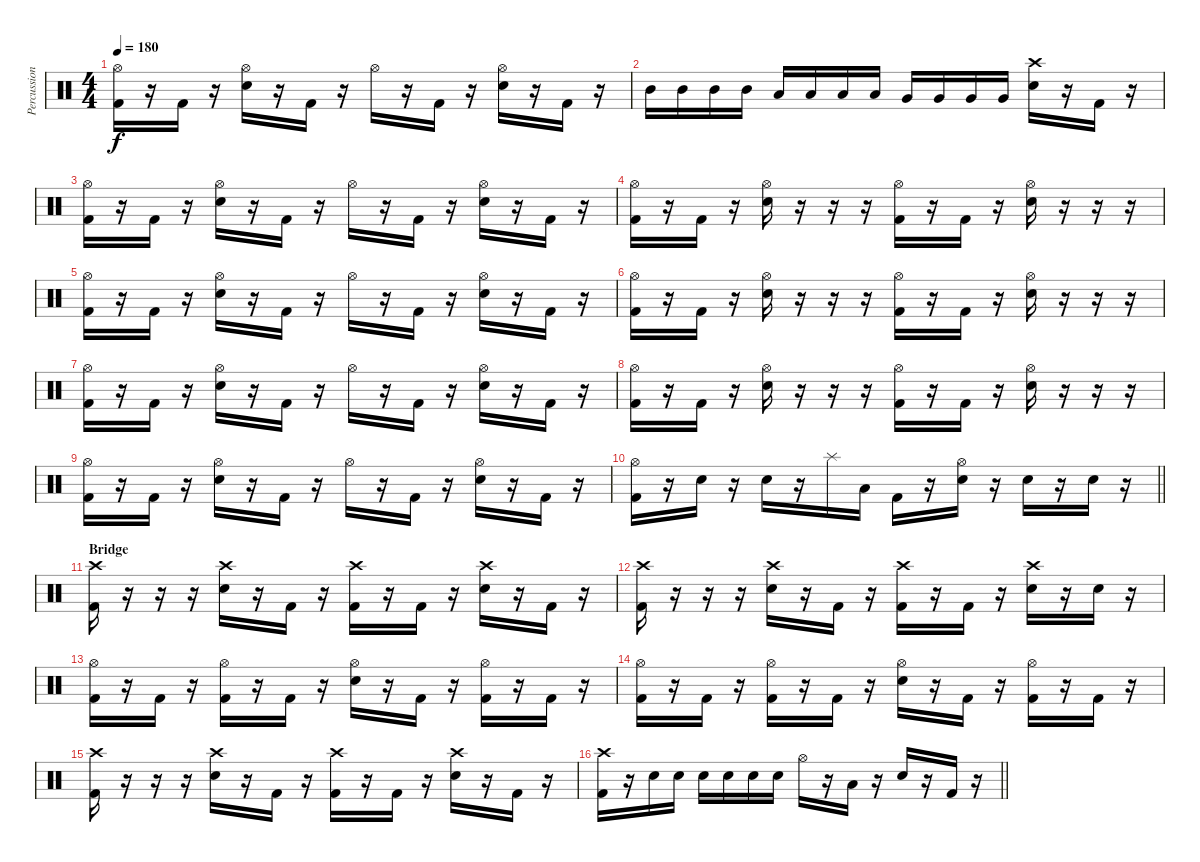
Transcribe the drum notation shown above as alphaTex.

\track ("Percussion" "Percussion") {instrument percussion}
\staff {score}
\articulation defaults
\ts (4 4)
\tempo 180
\clef neutral
\ks c
("Hi-Hat (open)" "Kick (hit) 2").16{dy f} r.16 "Kick (hit) 2".16 r.16 ("Hi-Hat (open)" "Electric Snare (hit)").16 r.16 "Kick (hit) 2".16 r.16 "Hi-Hat (open)".16 r.16 "Kick (hit) 2".16 r.16 ("Hi-Hat (open)" "Electric Snare (hit)").16 r.16 "Kick (hit) 2".16 r.16 |
"Mid Tom (hit)".16 "Mid Tom (hit)".16 "Mid Tom (hit)".16 "Mid Tom (hit)".16 "Low Tom (hit)".16 "Low Tom (hit)".16 "Low Tom (hit)".16 "Low Tom (hit)".16 "Very Low Tom (hit)".16 "Very Low Tom (hit)".16 "Very Low Tom (hit)".16 "Very Low Tom (hit)".16 ("Crash high (hit)" "Electric Snare (hit)").16 r.16 "Kick (hit) 2".16 r.16 |
("Hi-Hat (open)" "Kick (hit) 2").16 r.16 "Kick (hit) 2".16 r.16 ("Hi-Hat (open)" "Electric Snare (hit)").16 r.16 "Kick (hit) 2".16 r.16 "Hi-Hat (open)".16 r.16 "Kick (hit) 2".16 r.16 ("Hi-Hat (open)" "Electric Snare (hit)").16 r.16 "Kick (hit) 2".16 r.16 |
("Hi-Hat (open)" "Kick (hit) 2").16 r.16 "Kick (hit) 2".16 r.16 ("Hi-Hat (open)" "Electric Snare (hit)").16 r.16 r.16 r.16 ("Hi-Hat (open)" "Kick (hit) 2").16 r.16 "Kick (hit) 2".16 r.16 ("Hi-Hat (open)" "Electric Snare (hit)").16 r.16 r.16 r.16 |
("Hi-Hat (open)" "Kick (hit) 2").16 r.16 "Kick (hit) 2".16 r.16 ("Hi-Hat (open)" "Electric Snare (hit)").16 r.16 "Kick (hit) 2".16 r.16 "Hi-Hat (open)".16 r.16 "Kick (hit) 2".16 r.16 ("Hi-Hat (open)" "Electric Snare (hit)").16 r.16 "Kick (hit) 2".16 r.16 |
("Hi-Hat (open)" "Kick (hit) 2").16 r.16 "Kick (hit) 2".16 r.16 ("Hi-Hat (open)" "Electric Snare (hit)").16 r.16 r.16 r.16 ("Hi-Hat (open)" "Kick (hit) 2").16 r.16 "Kick (hit) 2".16 r.16 ("Hi-Hat (open)" "Electric Snare (hit)").16 r.16 r.16 r.16 |
("Hi-Hat (open)" "Kick (hit) 2").16 r.16 "Kick (hit) 2".16 r.16 ("Hi-Hat (open)" "Electric Snare (hit)").16 r.16 "Kick (hit) 2".16 r.16 "Hi-Hat (open)".16 r.16 "Kick (hit) 2".16 r.16 ("Hi-Hat (open)" "Electric Snare (hit)").16 r.16 "Kick (hit) 2".16 r.16 |
("Hi-Hat (open)" "Kick (hit) 2").16 r.16 "Kick (hit) 2".16 r.16 ("Hi-Hat (open)" "Electric Snare (hit)").16 r.16 r.16 r.16 ("Hi-Hat (open)" "Kick (hit) 2").16 r.16 "Kick (hit) 2".16 r.16 ("Hi-Hat (open)" "Electric Snare (hit)").16 r.16 r.16 r.16 |
("Hi-Hat (open)" "Kick (hit) 2").16 r.16 "Kick (hit) 2".16 r.16 ("Hi-Hat (open)" "Electric Snare (hit)").16 r.16 "Kick (hit) 2".16 r.16 "Hi-Hat (open)".16 r.16 "Kick (hit) 2".16 r.16 ("Hi-Hat (open)" "Electric Snare (hit)").16 r.16 "Kick (hit) 2".16 r.16 |
\barLineRight lightlight
("Hi-Hat (open)" "Kick (hit) 2").16 r.16 "Electric Snare (hit)".16 r.16 "Electric Snare (hit)".16 r.16 "Splash (hit)".16 "Low Tom (hit)".16 "Kick (hit) 2".16 r.16 ("Hi-Hat (open)" "Electric Snare (hit)").16 r.16 "Electric Snare (hit)".16 r.16 "Electric Snare (hit)".16 r.16 |
\section ("" "Bridge")
("Crash high (hit)" "Kick (hit) 2").16 r.16 r.16 r.16 ("Crash high (hit)" "Electric Snare (hit)").16 r.16 "Kick (hit) 2".16 r.16 ("Crash high (hit)" "Kick (hit) 2").16 r.16 "Kick (hit) 2".16 r.16 ("Crash high (hit)" "Electric Snare (hit)").16 r.16 "Kick (hit) 2".16 r.16 |
("Crash high (hit)" "Kick (hit) 2").16 r.16 r.16 r.16 ("Crash high (hit)" "Electric Snare (hit)").16 r.16 "Kick (hit) 2".16 r.16 ("Crash high (hit)" "Kick (hit) 2").16 r.16 "Kick (hit) 2".16 r.16 ("Crash high (hit)" "Electric Snare (hit)").16 r.16 "Electric Snare (hit)".16 r.16 |
("Hi-Hat (open)" "Kick (hit) 2").16 r.16 "Kick (hit) 2".16 r.16 ("Hi-Hat (open)" "Kick (hit) 2").16 r.16 "Kick (hit) 2".16 r.16 ("Hi-Hat (open)" "Electric Snare (hit)").16 r.16 "Kick (hit) 2".16 r.16 ("Hi-Hat (open)" "Kick (hit) 2").16 r.16 "Kick (hit) 2".16 r.16 |
("Hi-Hat (open)" "Kick (hit) 2").16 r.16 "Kick (hit) 2".16 r.16 ("Hi-Hat (open)" "Kick (hit) 2").16 r.16 "Kick (hit) 2".16 r.16 ("Hi-Hat (open)" "Electric Snare (hit)").16 r.16 "Kick (hit) 2".16 r.16 ("Hi-Hat (open)" "Kick (hit) 2").16 r.16 "Kick (hit) 2".16 r.16 |
("Crash high (hit)" "Kick (hit) 2").16 r.16 r.16 r.16 ("Crash high (hit)" "Electric Snare (hit)").16 r.16 "Kick (hit) 2".16 r.16 ("Crash high (hit)" "Kick (hit) 2").16 r.16 "Kick (hit) 2".16 r.16 ("Crash high (hit)" "Electric Snare (hit)").16 r.16 "Kick (hit) 2".16 r.16 |
\barLineRight lightlight
("Crash high (hit)" "Kick (hit) 2").16 r.16 "Electric Snare (hit)".16 "Electric Snare (hit)".16 "Electric Snare (hit)".16 "Electric Snare (hit)".16 "Electric Snare (hit)".16 "Electric Snare (hit)".16 "Hi-Hat (open)".16 r.16 "Low Tom (hit)".16 r.16 "Electric Snare (hit)".16 r.16 "Kick (hit) 2".16 r.16
